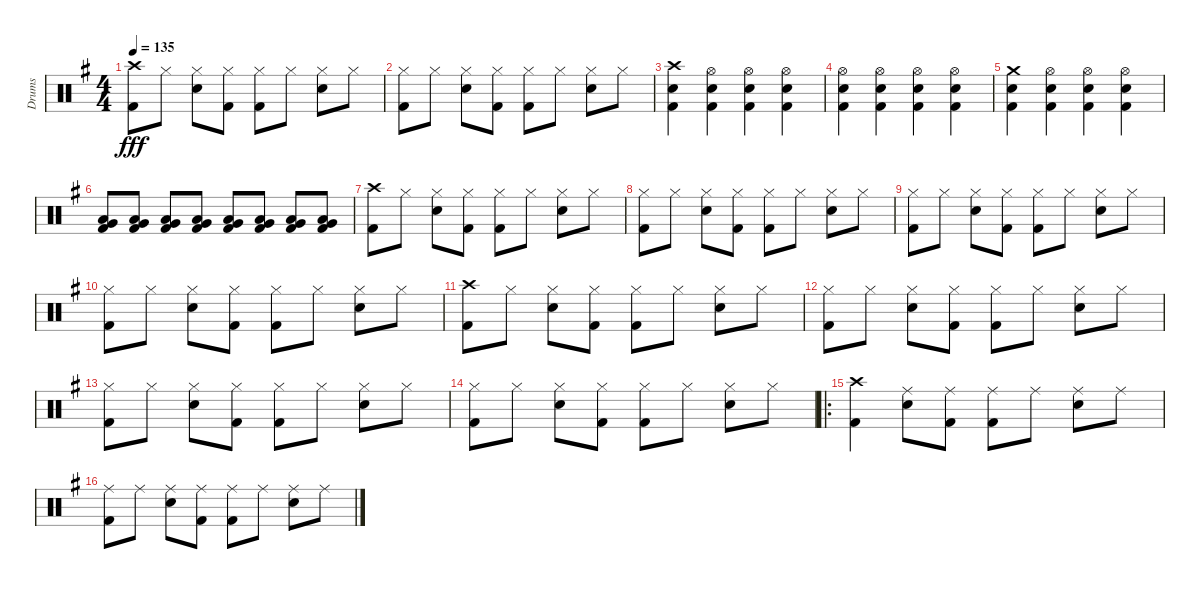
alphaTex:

\track ("Drums" "Drums") {instrument percussion}
\staff {score}
\articulation defaults
\ts (4 4)
\tempo 135
\clef neutral
\ks g
("Crash high (hit)" "Kick (hit) 2").8{dy fff} "Hi-Hat (closed)".8 ("Hi-Hat (closed)" "Electric Snare (hit)").8 ("Hi-Hat (closed)" "Kick (hit) 2").8 ("Hi-Hat (closed)" "Kick (hit) 2").8 "Hi-Hat (closed)".8 ("Hi-Hat (closed)" "Electric Snare (hit)").8 "Hi-Hat (closed)".8 |
("Hi-Hat (closed)" "Kick (hit) 2").8 "Hi-Hat (closed)".8 ("Hi-Hat (closed)" "Electric Snare (hit)").8 ("Hi-Hat (closed)" "Kick (hit) 2").8 ("Hi-Hat (closed)" "Kick (hit) 2").8 "Hi-Hat (closed)".8 ("Hi-Hat (closed)" "Electric Snare (hit)").8 "Hi-Hat (closed)".8 |
("Crash high (hit)" "Electric Snare (hit)" "Kick (hit) 2").4 ("Hi-Hat (open)" "Electric Snare (hit)" "Kick (hit) 2").4 ("Hi-Hat (open)" "Electric Snare (hit)" "Kick (hit) 2").4 ("Hi-Hat (open)" "Electric Snare (hit)" "Kick (hit) 2").4 |
("Hi-Hat (open)" "Electric Snare (hit)" "Kick (hit) 2").4 ("Hi-Hat (open)" "Electric Snare (hit)" "Kick (hit) 2").4 ("Hi-Hat (open)" "Electric Snare (hit)" "Kick (hit) 2").4 ("Hi-Hat (open)" "Electric Snare (hit)" "Kick (hit) 2").4 |
("Crash medium (hit)" "Electric Snare (hit)" "Kick (hit) 2").4 ("Hi-Hat (open)" "Electric Snare (hit)" "Kick (hit) 2").4 ("Hi-Hat (open)" "Electric Snare (hit)" "Kick (hit) 2").4 ("Hi-Hat (open)" "Electric Snare (hit)" "Kick (hit) 2").4 |
("Low Tom (hit)" "Very Low Tom (hit)" "Kick (hit) 2").8 ("Low Tom (hit)" "Very Low Tom (hit)" "Kick (hit) 2").8 ("Low Tom (hit)" "Very Low Tom (hit)" "Kick (hit) 2").8 ("Low Tom (hit)" "Very Low Tom (hit)" "Kick (hit) 2").8 ("Low Tom (hit)" "Very Low Tom (hit)" "Kick (hit) 2").8 ("Low Tom (hit)" "Very Low Tom (hit)" "Kick (hit) 2").8 ("Low Tom (hit)" "Very Low Tom (hit)" "Kick (hit) 2").8 ("Low Tom (hit)" "Very Low Tom (hit)" "Kick (hit) 2").8 |
("Crash high (hit)" "Kick (hit) 2").8 "Hi-Hat (closed)".8 ("Hi-Hat (closed)" "Electric Snare (hit)").8 ("Hi-Hat (closed)" "Kick (hit) 2").8 ("Hi-Hat (closed)" "Kick (hit) 2").8 "Hi-Hat (closed)".8 ("Hi-Hat (closed)" "Electric Snare (hit)").8 "Hi-Hat (closed)".8 |
("Hi-Hat (closed)" "Kick (hit) 2").8 "Hi-Hat (closed)".8 ("Hi-Hat (closed)" "Electric Snare (hit)").8 ("Hi-Hat (closed)" "Kick (hit) 2").8 ("Hi-Hat (closed)" "Kick (hit) 2").8 "Hi-Hat (closed)".8 ("Hi-Hat (closed)" "Electric Snare (hit)").8 "Hi-Hat (closed)".8 |
("Hi-Hat (closed)" "Kick (hit) 2").8 "Hi-Hat (closed)".8 ("Hi-Hat (closed)" "Electric Snare (hit)").8 ("Hi-Hat (closed)" "Kick (hit) 2").8 ("Hi-Hat (closed)" "Kick (hit) 2").8 "Hi-Hat (closed)".8 ("Hi-Hat (closed)" "Electric Snare (hit)").8 "Hi-Hat (closed)".8 |
("Hi-Hat (closed)" "Kick (hit) 2").8 "Hi-Hat (closed)".8 ("Hi-Hat (closed)" "Electric Snare (hit)").8 ("Hi-Hat (closed)" "Kick (hit) 2").8 ("Hi-Hat (closed)" "Kick (hit) 2").8 "Hi-Hat (closed)".8 ("Hi-Hat (closed)" "Electric Snare (hit)").8 "Hi-Hat (closed)".8 |
("Crash high (hit)" "Kick (hit) 2").8 "Hi-Hat (closed)".8 ("Hi-Hat (closed)" "Electric Snare (hit)").8 ("Hi-Hat (closed)" "Kick (hit) 2").8 ("Hi-Hat (closed)" "Kick (hit) 2").8 "Hi-Hat (closed)".8 ("Hi-Hat (closed)" "Electric Snare (hit)").8 "Hi-Hat (closed)".8 |
("Hi-Hat (closed)" "Kick (hit) 2").8 "Hi-Hat (closed)".8 ("Hi-Hat (closed)" "Electric Snare (hit)").8 ("Hi-Hat (closed)" "Kick (hit) 2").8 ("Hi-Hat (closed)" "Kick (hit) 2").8 "Hi-Hat (closed)".8 ("Hi-Hat (closed)" "Electric Snare (hit)").8 "Hi-Hat (closed)".8 |
("Hi-Hat (closed)" "Kick (hit) 2").8 "Hi-Hat (closed)".8 ("Hi-Hat (closed)" "Electric Snare (hit)").8 ("Hi-Hat (closed)" "Kick (hit) 2").8 ("Hi-Hat (closed)" "Kick (hit) 2").8 "Hi-Hat (closed)".8 ("Hi-Hat (closed)" "Electric Snare (hit)").8 "Hi-Hat (closed)".8 |
("Hi-Hat (closed)" "Kick (hit) 2").8 "Hi-Hat (closed)".8 ("Hi-Hat (closed)" "Electric Snare (hit)").8 ("Hi-Hat (closed)" "Kick (hit) 2").8 ("Hi-Hat (closed)" "Kick (hit) 2").8 "Hi-Hat (closed)".8 ("Hi-Hat (closed)" "Electric Snare (hit)").8 "Hi-Hat (closed)".8 |
\ro
("Crash high (hit)" "Kick (hit) 2").4 ("Ride (middle)" "Electric Snare (hit)").8 ("Ride (middle)" "Kick (hit) 2").8 ("Ride (middle)" "Kick (hit) 2").8 "Ride (middle)".8 ("Ride (middle)" "Electric Snare (hit)").8 "Ride (middle)".8 |
("Ride (middle)" "Kick (hit) 2").8 "Ride (middle)".8 ("Ride (middle)" "Electric Snare (hit)").8 ("Ride (middle)" "Kick (hit) 2").8 ("Ride (middle)" "Kick (hit) 2").8 "Ride (middle)".8 ("Ride (middle)" "Electric Snare (hit)").8 "Ride (middle)".8
